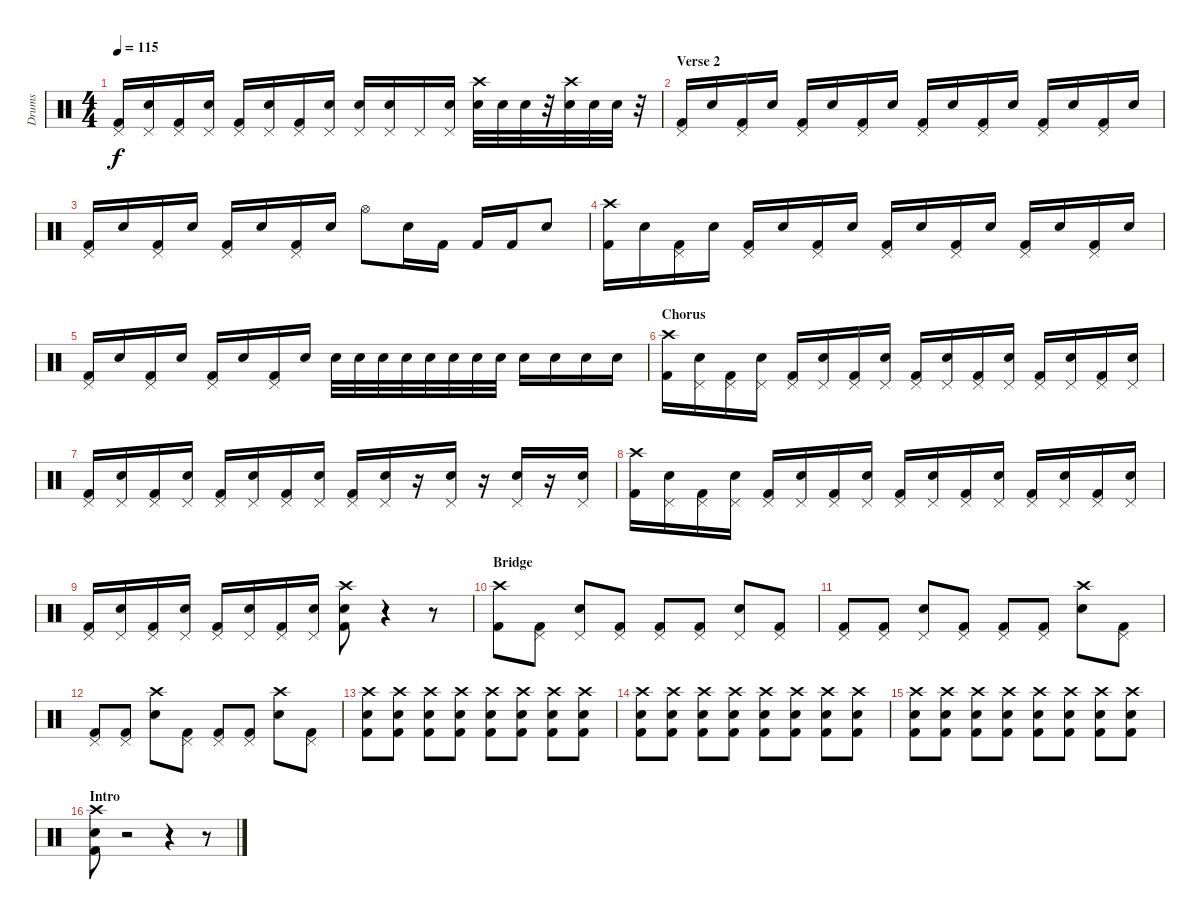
\track ("Drums" "Drums") {instrument percussion}
\staff {score}
\articulation defaults
\ts (4 4)
\tempo 115
\clef neutral
\ks c
("Pedal Hi-Hat (hit)" "Kick (hit) 2").16{dy f} ("Pedal Hi-Hat (hit)" "Electric Snare (hit)").16 ("Pedal Hi-Hat (hit)" "Kick (hit) 2").16 ("Pedal Hi-Hat (hit)" "Electric Snare (hit)").16 ("Pedal Hi-Hat (hit)" "Kick (hit) 2").16 ("Pedal Hi-Hat (hit)" "Electric Snare (hit)").16 ("Pedal Hi-Hat (hit)" "Kick (hit) 2").16 ("Pedal Hi-Hat (hit)" "Electric Snare (hit)").16 ("Pedal Hi-Hat (hit)" "Electric Snare (hit)").16 ("Pedal Hi-Hat (hit)" "Electric Snare (hit)").16 "Pedal Hi-Hat (hit)".16 ("Pedal Hi-Hat (hit)" "Electric Snare (hit)").16 ("Crash high (hit)" "Electric Snare (hit)").32 "Electric Snare (hit)".32 "Electric Snare (hit)".32 r.32 ("Crash high (hit)" "Electric Snare (hit)").32 "Electric Snare (hit)".32 "Electric Snare (hit)".32 r.32 |
\section ("" "Verse 2")
("Pedal Hi-Hat (hit)" "Kick (hit) 2").16 "Electric Snare (hit)".16 ("Pedal Hi-Hat (hit)" "Kick (hit) 2").16 "Electric Snare (hit)".16 ("Pedal Hi-Hat (hit)" "Kick (hit) 2").16 "Electric Snare (hit)".16 ("Pedal Hi-Hat (hit)" "Kick (hit) 2").16 "Electric Snare (hit)".16 ("Pedal Hi-Hat (hit)" "Kick (hit) 2").16 "Electric Snare (hit)".16 ("Pedal Hi-Hat (hit)" "Kick (hit) 2").16 "Electric Snare (hit)".16 ("Pedal Hi-Hat (hit)" "Kick (hit) 2").16 "Electric Snare (hit)".16 ("Pedal Hi-Hat (hit)" "Kick (hit) 2").16 "Electric Snare (hit)".16 |
("Pedal Hi-Hat (hit)" "Kick (hit) 2").16 "Electric Snare (hit)".16 ("Pedal Hi-Hat (hit)" "Kick (hit) 2").16 "Electric Snare (hit)".16 ("Pedal Hi-Hat (hit)" "Kick (hit) 2").16 "Electric Snare (hit)".16 ("Pedal Hi-Hat (hit)" "Kick (hit) 2").16 "Electric Snare (hit)".16 "Hi-Hat (open)".8 "Electric Snare (hit)".16 "Kick (hit) 2".16 "Kick (hit) 2".16 "Kick (hit) 2".16 "Electric Snare (hit)".8 |
("Crash high (hit)" "Kick (hit) 2").16 "Electric Snare (hit)".16 ("Pedal Hi-Hat (hit)" "Kick (hit) 2").16 "Electric Snare (hit)".16 ("Pedal Hi-Hat (hit)" "Kick (hit) 2").16 "Electric Snare (hit)".16 ("Pedal Hi-Hat (hit)" "Kick (hit) 2").16 "Electric Snare (hit)".16 ("Pedal Hi-Hat (hit)" "Kick (hit) 2").16 "Electric Snare (hit)".16 ("Pedal Hi-Hat (hit)" "Kick (hit) 2").16 "Electric Snare (hit)".16 ("Pedal Hi-Hat (hit)" "Kick (hit) 2").16 "Electric Snare (hit)".16 ("Pedal Hi-Hat (hit)" "Kick (hit) 2").16 "Electric Snare (hit)".16 |
("Pedal Hi-Hat (hit)" "Kick (hit) 2").16 "Electric Snare (hit)".16 ("Pedal Hi-Hat (hit)" "Kick (hit) 2").16 "Electric Snare (hit)".16 ("Pedal Hi-Hat (hit)" "Kick (hit) 2").16 "Electric Snare (hit)".16 ("Pedal Hi-Hat (hit)" "Kick (hit) 2").16 "Electric Snare (hit)".16 "Electric Snare (hit)".32 "Electric Snare (hit)".32 "Electric Snare (hit)".32 "Electric Snare (hit)".32 "Electric Snare (hit)".32 "Electric Snare (hit)".32 "Electric Snare (hit)".32 "Electric Snare (hit)".32 "Electric Snare (hit)".16 "Electric Snare (hit)".16 "Electric Snare (hit)".16 "Electric Snare (hit)".16 |
\section ("" "Chorus")
("Crash high (hit)" "Kick (hit) 2").16 ("Pedal Hi-Hat (hit)" "Electric Snare (hit)").16 ("Pedal Hi-Hat (hit)" "Kick (hit) 2").16 ("Pedal Hi-Hat (hit)" "Electric Snare (hit)").16 ("Pedal Hi-Hat (hit)" "Kick (hit) 2").16 ("Pedal Hi-Hat (hit)" "Electric Snare (hit)").16 ("Pedal Hi-Hat (hit)" "Kick (hit) 2").16 ("Pedal Hi-Hat (hit)" "Electric Snare (hit)").16 ("Pedal Hi-Hat (hit)" "Kick (hit) 2").16 ("Pedal Hi-Hat (hit)" "Electric Snare (hit)").16 ("Pedal Hi-Hat (hit)" "Kick (hit) 2").16 ("Pedal Hi-Hat (hit)" "Electric Snare (hit)").16 ("Pedal Hi-Hat (hit)" "Kick (hit) 2").16 ("Pedal Hi-Hat (hit)" "Electric Snare (hit)").16 ("Pedal Hi-Hat (hit)" "Kick (hit) 2").16 ("Pedal Hi-Hat (hit)" "Electric Snare (hit)").16 |
("Pedal Hi-Hat (hit)" "Kick (hit) 2").16 ("Pedal Hi-Hat (hit)" "Electric Snare (hit)").16 ("Pedal Hi-Hat (hit)" "Kick (hit) 2").16 ("Pedal Hi-Hat (hit)" "Electric Snare (hit)").16 ("Pedal Hi-Hat (hit)" "Kick (hit) 2").16 ("Pedal Hi-Hat (hit)" "Electric Snare (hit)").16 ("Pedal Hi-Hat (hit)" "Kick (hit) 2").16 ("Pedal Hi-Hat (hit)" "Electric Snare (hit)").16 ("Pedal Hi-Hat (hit)" "Kick (hit) 2").16 ("Pedal Hi-Hat (hit)" "Electric Snare (hit)").16 r.16 ("Pedal Hi-Hat (hit)" "Electric Snare (hit)").16 r.16 ("Pedal Hi-Hat (hit)" "Electric Snare (hit)").16 r.16 ("Pedal Hi-Hat (hit)" "Electric Snare (hit)").16 |
("Crash high (hit)" "Kick (hit) 2").16 ("Pedal Hi-Hat (hit)" "Electric Snare (hit)").16 ("Pedal Hi-Hat (hit)" "Kick (hit) 2").16 ("Pedal Hi-Hat (hit)" "Electric Snare (hit)").16 ("Pedal Hi-Hat (hit)" "Kick (hit) 2").16 ("Pedal Hi-Hat (hit)" "Electric Snare (hit)").16 ("Pedal Hi-Hat (hit)" "Kick (hit) 2").16 ("Pedal Hi-Hat (hit)" "Electric Snare (hit)").16 ("Pedal Hi-Hat (hit)" "Kick (hit) 2").16 ("Pedal Hi-Hat (hit)" "Electric Snare (hit)").16 ("Pedal Hi-Hat (hit)" "Kick (hit) 2").16 ("Pedal Hi-Hat (hit)" "Electric Snare (hit)").16 ("Pedal Hi-Hat (hit)" "Kick (hit) 2").16 ("Pedal Hi-Hat (hit)" "Electric Snare (hit)").16 ("Pedal Hi-Hat (hit)" "Kick (hit) 2").16 ("Pedal Hi-Hat (hit)" "Electric Snare (hit)").16 |
("Pedal Hi-Hat (hit)" "Kick (hit) 2").16 ("Pedal Hi-Hat (hit)" "Electric Snare (hit)").16 ("Pedal Hi-Hat (hit)" "Kick (hit) 2").16 ("Pedal Hi-Hat (hit)" "Electric Snare (hit)").16 ("Pedal Hi-Hat (hit)" "Kick (hit) 2").16 ("Pedal Hi-Hat (hit)" "Electric Snare (hit)").16 ("Pedal Hi-Hat (hit)" "Kick (hit) 2").16 ("Pedal Hi-Hat (hit)" "Electric Snare (hit)").16 ("Crash high (hit)" "Electric Snare (hit)" "Kick (hit) 2").8 r.4 r.8 |
\section ("" "Bridge")
("Crash high (hit)" "Kick (hit) 2").8 ("Pedal Hi-Hat (hit)" "Kick (hit) 2").8 ("Pedal Hi-Hat (hit)" "Electric Snare (hit)").8 ("Pedal Hi-Hat (hit)" "Kick (hit) 2").8 ("Pedal Hi-Hat (hit)" "Kick (hit) 2").8 ("Pedal Hi-Hat (hit)" "Kick (hit) 2").8 ("Pedal Hi-Hat (hit)" "Electric Snare (hit)").8 ("Pedal Hi-Hat (hit)" "Kick (hit) 2").8 |
("Pedal Hi-Hat (hit)" "Kick (hit) 2").8 ("Pedal Hi-Hat (hit)" "Kick (hit) 2").8 ("Pedal Hi-Hat (hit)" "Electric Snare (hit)").8 ("Pedal Hi-Hat (hit)" "Kick (hit) 2").8 ("Pedal Hi-Hat (hit)" "Kick (hit) 2").8 ("Pedal Hi-Hat (hit)" "Kick (hit) 2").8 ("Crash high (hit)" "Electric Snare (hit)").8 ("Pedal Hi-Hat (hit)" "Kick (hit) 2").8 |
("Pedal Hi-Hat (hit)" "Kick (hit) 2").8 ("Pedal Hi-Hat (hit)" "Kick (hit) 2").8 ("Crash high (hit)" "Electric Snare (hit)").8 ("Pedal Hi-Hat (hit)" "Kick (hit) 2").8 ("Pedal Hi-Hat (hit)" "Kick (hit) 2").8 ("Pedal Hi-Hat (hit)" "Kick (hit) 2").8 ("Crash high (hit)" "Electric Snare (hit)").8 ("Pedal Hi-Hat (hit)" "Kick (hit) 2").8 |
("Crash high (hit)" "Electric Snare (hit)" "Kick (hit) 2").8 ("Crash high (hit)" "Electric Snare (hit)" "Kick (hit) 2").8 ("Crash high (hit)" "Electric Snare (hit)" "Kick (hit) 2").8 ("Crash high (hit)" "Electric Snare (hit)" "Kick (hit) 2").8 ("Crash high (hit)" "Electric Snare (hit)" "Kick (hit) 2").8 ("Crash high (hit)" "Electric Snare (hit)" "Kick (hit) 2").8 ("Crash high (hit)" "Electric Snare (hit)" "Kick (hit) 2").8 ("Crash high (hit)" "Electric Snare (hit)" "Kick (hit) 2").8 |
("Crash high (hit)" "Electric Snare (hit)" "Kick (hit) 2").8 ("Crash high (hit)" "Electric Snare (hit)" "Kick (hit) 2").8 ("Crash high (hit)" "Electric Snare (hit)" "Kick (hit) 2").8 ("Crash high (hit)" "Electric Snare (hit)" "Kick (hit) 2").8 ("Crash high (hit)" "Electric Snare (hit)" "Kick (hit) 2").8 ("Crash high (hit)" "Electric Snare (hit)" "Kick (hit) 2").8 ("Crash high (hit)" "Electric Snare (hit)" "Kick (hit) 2").8 ("Crash high (hit)" "Electric Snare (hit)" "Kick (hit) 2").8 |
("Crash high (hit)" "Electric Snare (hit)" "Kick (hit) 2").8 ("Crash high (hit)" "Electric Snare (hit)" "Kick (hit) 2").8 ("Crash high (hit)" "Electric Snare (hit)" "Kick (hit) 2").8 ("Crash high (hit)" "Electric Snare (hit)" "Kick (hit) 2").8 ("Crash high (hit)" "Electric Snare (hit)" "Kick (hit) 2").8 ("Crash high (hit)" "Electric Snare (hit)" "Kick (hit) 2").8 ("Crash high (hit)" "Electric Snare (hit)" "Kick (hit) 2").8 ("Crash high (hit)" "Electric Snare (hit)" "Kick (hit) 2").8 |
\section ("" "Intro")
("Crash high (hit)" "Electric Snare (hit)" "Kick (hit) 2").8 r.2 r.4 r.8
